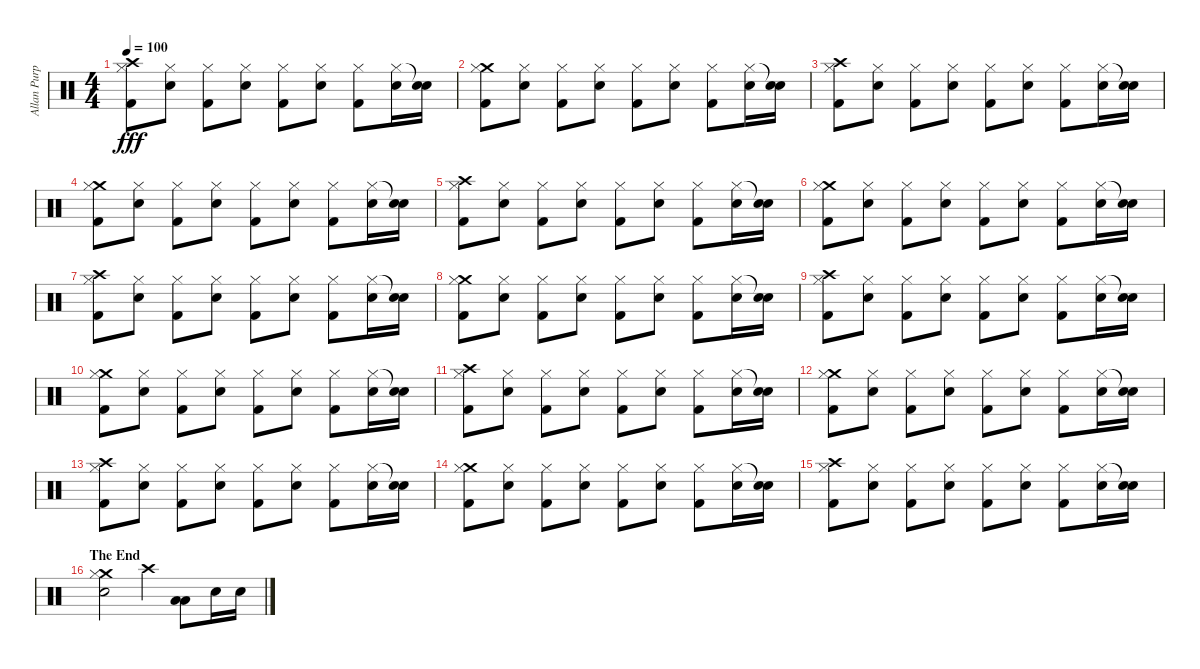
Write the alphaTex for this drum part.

\track ("Allan Purple" "Allan Purp") {instrument percussion}
\staff {score}
\articulation defaults
\ts (4 4)
\tempo 100
\clef neutral
\ks c
("Crash high (hit)" "Hi-Hat (closed)" "Kick (hit) 2").8{dy fff volume 15} ("Hi-Hat (closed)" "Electric Snare (hit)").8 ("Hi-Hat (closed)" "Kick (hit) 2").8 ("Hi-Hat (closed)" "Electric Snare (hit)").8 ("Hi-Hat (closed)" "Kick (hit) 2").8 ("Hi-Hat (closed)" "Electric Snare (hit)").8 ("Hi-Hat (closed)" "Kick (hit) 2").8 ("Hi-Hat (closed)" "Electric Snare (hit)").16 ("Snare (hit)"{t} "Electric Snare (hit)").16 |
("Crash medium (hit)" "Hi-Hat (closed)" "Kick (hit) 2").8 ("Hi-Hat (closed)" "Electric Snare (hit)").8 ("Hi-Hat (closed)" "Kick (hit) 2").8 ("Hi-Hat (closed)" "Electric Snare (hit)").8 ("Hi-Hat (closed)" "Kick (hit) 2").8 ("Hi-Hat (closed)" "Electric Snare (hit)").8 ("Hi-Hat (closed)" "Kick (hit) 2").8 ("Hi-Hat (closed)" "Electric Snare (hit)").16 ("Snare (hit)"{t} "Electric Snare (hit)").16 |
("Crash high (hit)" "Hi-Hat (closed)" "Kick (hit) 2").8{volume 14} ("Hi-Hat (closed)" "Electric Snare (hit)").8 ("Hi-Hat (closed)" "Kick (hit) 2").8 ("Hi-Hat (closed)" "Electric Snare (hit)").8 ("Hi-Hat (closed)" "Kick (hit) 2").8 ("Hi-Hat (closed)" "Electric Snare (hit)").8 ("Hi-Hat (closed)" "Kick (hit) 2").8 ("Hi-Hat (closed)" "Electric Snare (hit)").16 ("Snare (hit)"{t} "Electric Snare (hit)").16 |
("Crash medium (hit)" "Hi-Hat (closed)" "Kick (hit) 2").8 ("Hi-Hat (closed)" "Electric Snare (hit)").8 ("Hi-Hat (closed)" "Kick (hit) 2").8 ("Hi-Hat (closed)" "Electric Snare (hit)").8 ("Hi-Hat (closed)" "Kick (hit) 2").8 ("Hi-Hat (closed)" "Electric Snare (hit)").8 ("Hi-Hat (closed)" "Kick (hit) 2").8 ("Hi-Hat (closed)" "Electric Snare (hit)").16 ("Snare (hit)"{t} "Electric Snare (hit)").16 |
("Crash high (hit)" "Hi-Hat (closed)" "Kick (hit) 2").8{volume 13} ("Hi-Hat (closed)" "Electric Snare (hit)").8 ("Hi-Hat (closed)" "Kick (hit) 2").8 ("Hi-Hat (closed)" "Electric Snare (hit)").8 ("Hi-Hat (closed)" "Kick (hit) 2").8 ("Hi-Hat (closed)" "Electric Snare (hit)").8 ("Hi-Hat (closed)" "Kick (hit) 2").8 ("Hi-Hat (closed)" "Electric Snare (hit)").16 ("Snare (hit)"{t} "Electric Snare (hit)").16 |
("Crash medium (hit)" "Hi-Hat (closed)" "Kick (hit) 2").8 ("Hi-Hat (closed)" "Electric Snare (hit)").8 ("Hi-Hat (closed)" "Kick (hit) 2").8 ("Hi-Hat (closed)" "Electric Snare (hit)").8 ("Hi-Hat (closed)" "Kick (hit) 2").8 ("Hi-Hat (closed)" "Electric Snare (hit)").8 ("Hi-Hat (closed)" "Kick (hit) 2").8 ("Hi-Hat (closed)" "Electric Snare (hit)").16 ("Snare (hit)"{t} "Electric Snare (hit)").16 |
("Crash high (hit)" "Hi-Hat (closed)" "Kick (hit) 2").8{volume 12} ("Hi-Hat (closed)" "Electric Snare (hit)").8 ("Hi-Hat (closed)" "Kick (hit) 2").8 ("Hi-Hat (closed)" "Electric Snare (hit)").8 ("Hi-Hat (closed)" "Kick (hit) 2").8 ("Hi-Hat (closed)" "Electric Snare (hit)").8 ("Hi-Hat (closed)" "Kick (hit) 2").8 ("Hi-Hat (closed)" "Electric Snare (hit)").16 ("Snare (hit)"{t} "Electric Snare (hit)").16 |
("Crash medium (hit)" "Hi-Hat (closed)" "Kick (hit) 2").8 ("Hi-Hat (closed)" "Electric Snare (hit)").8 ("Hi-Hat (closed)" "Kick (hit) 2").8 ("Hi-Hat (closed)" "Electric Snare (hit)").8 ("Hi-Hat (closed)" "Kick (hit) 2").8 ("Hi-Hat (closed)" "Electric Snare (hit)").8 ("Hi-Hat (closed)" "Kick (hit) 2").8 ("Hi-Hat (closed)" "Electric Snare (hit)").16 ("Snare (hit)"{t} "Electric Snare (hit)").16 |
("Crash high (hit)" "Hi-Hat (closed)" "Kick (hit) 2").8{volume 11} ("Hi-Hat (closed)" "Electric Snare (hit)").8 ("Hi-Hat (closed)" "Kick (hit) 2").8 ("Hi-Hat (closed)" "Electric Snare (hit)").8 ("Hi-Hat (closed)" "Kick (hit) 2").8 ("Hi-Hat (closed)" "Electric Snare (hit)").8 ("Hi-Hat (closed)" "Kick (hit) 2").8 ("Hi-Hat (closed)" "Electric Snare (hit)").16 ("Snare (hit)"{t} "Electric Snare (hit)").16 |
("Crash medium (hit)" "Hi-Hat (closed)" "Kick (hit) 2").8 ("Hi-Hat (closed)" "Electric Snare (hit)").8 ("Hi-Hat (closed)" "Kick (hit) 2").8 ("Hi-Hat (closed)" "Electric Snare (hit)").8 ("Hi-Hat (closed)" "Kick (hit) 2").8 ("Hi-Hat (closed)" "Electric Snare (hit)").8 ("Hi-Hat (closed)" "Kick (hit) 2").8 ("Hi-Hat (closed)" "Electric Snare (hit)").16 ("Snare (hit)"{t} "Electric Snare (hit)").16 |
("Crash high (hit)" "Hi-Hat (closed)" "Kick (hit) 2").8{volume 10} ("Hi-Hat (closed)" "Electric Snare (hit)").8 ("Hi-Hat (closed)" "Kick (hit) 2").8 ("Hi-Hat (closed)" "Electric Snare (hit)").8 ("Hi-Hat (closed)" "Kick (hit) 2").8 ("Hi-Hat (closed)" "Electric Snare (hit)").8 ("Hi-Hat (closed)" "Kick (hit) 2").8 ("Hi-Hat (closed)" "Electric Snare (hit)").16 ("Snare (hit)"{t} "Electric Snare (hit)").16 |
("Crash medium (hit)" "Hi-Hat (closed)" "Kick (hit) 2").8 ("Hi-Hat (closed)" "Electric Snare (hit)").8 ("Hi-Hat (closed)" "Kick (hit) 2").8 ("Hi-Hat (closed)" "Electric Snare (hit)").8 ("Hi-Hat (closed)" "Kick (hit) 2").8 ("Hi-Hat (closed)" "Electric Snare (hit)").8 ("Hi-Hat (closed)" "Kick (hit) 2").8 ("Hi-Hat (closed)" "Electric Snare (hit)").16 ("Snare (hit)"{t} "Electric Snare (hit)").16 |
("Crash high (hit)" "Hi-Hat (closed)" "Kick (hit) 2").8{volume 10} ("Hi-Hat (closed)" "Electric Snare (hit)").8 ("Hi-Hat (closed)" "Kick (hit) 2").8 ("Hi-Hat (closed)" "Electric Snare (hit)").8 ("Hi-Hat (closed)" "Kick (hit) 2").8 ("Hi-Hat (closed)" "Electric Snare (hit)").8 ("Hi-Hat (closed)" "Kick (hit) 2").8 ("Hi-Hat (closed)" "Electric Snare (hit)").16 ("Snare (hit)"{t} "Electric Snare (hit)").16 |
("Crash medium (hit)" "Hi-Hat (closed)" "Kick (hit) 2").8 ("Hi-Hat (closed)" "Electric Snare (hit)").8 ("Hi-Hat (closed)" "Kick (hit) 2").8 ("Hi-Hat (closed)" "Electric Snare (hit)").8 ("Hi-Hat (closed)" "Kick (hit) 2").8 ("Hi-Hat (closed)" "Electric Snare (hit)").8 ("Hi-Hat (closed)" "Kick (hit) 2").8 ("Hi-Hat (closed)" "Electric Snare (hit)").16 ("Snare (hit)"{t} "Electric Snare (hit)").16 |
("Crash high (hit)" "Hi-Hat (closed)" "Kick (hit) 2").8{volume 10} ("Hi-Hat (closed)" "Electric Snare (hit)").8 ("Hi-Hat (closed)" "Kick (hit) 2").8 ("Hi-Hat (closed)" "Electric Snare (hit)").8 ("Hi-Hat (closed)" "Kick (hit) 2").8 ("Hi-Hat (closed)" "Electric Snare (hit)").8 ("Hi-Hat (closed)" "Kick (hit) 2").8 ("Hi-Hat (closed)" "Electric Snare (hit)").16 ("Snare (hit)"{t} "Electric Snare (hit)").16 |
\section ("" "The End")
("Crash medium (hit)" "Hi-Hat (closed)" "Snare (hit) 2").2 "Crash high (hit)".4 ("Low Tom (hit)" "Low Tom (hit)").8 "Electric Snare (hit)".16 "Electric Snare (hit)".16
